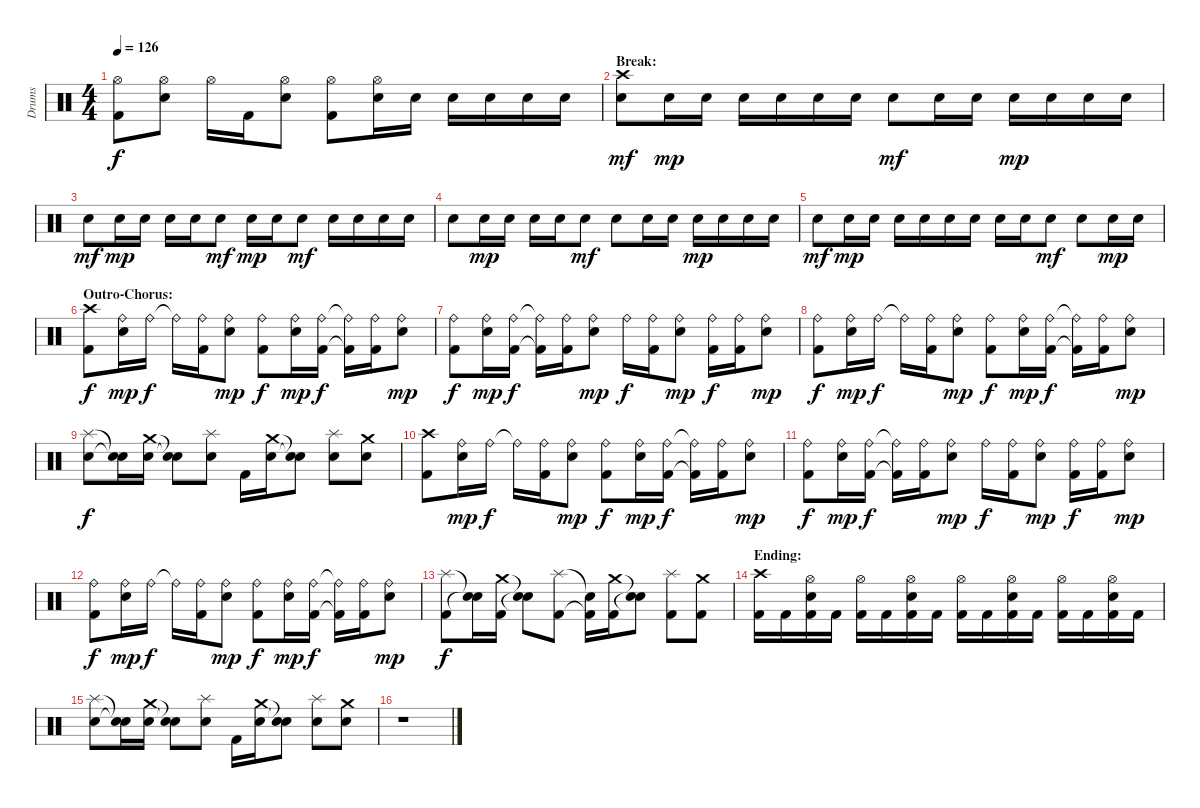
\track ("Drums" "Drums") {instrument percussion}
\staff {score}
\articulation defaults
\ts (4 4)
\tempo 126
\clef neutral
\ks c
("Hi-Hat (open)" "Kick (hit) 2").8{dy f} ("Hi-Hat (open)" "Snare (hit) 2").8 "Hi-Hat (open)".16 "Kick (hit) 2".16 ("Hi-Hat (open)" "Snare (hit) 2").8 ("Hi-Hat (open)" "Kick (hit) 2").8 ("Hi-Hat (open)" "Snare (hit) 2").16 "Snare (hit) 2".16 "Snare (hit) 2".16 "Snare (hit) 2".16 "Snare (hit) 2".16 "Snare (hit) 2".16 |
\section ("" "Break:")
("Crash high (hit)" "Snare (hit) 2").8{dy mf} "Snare (hit) 2".16{dy mp} "Snare (hit) 2".16 "Snare (hit) 2".16 "Snare (hit) 2".16 "Snare (hit) 2".16 "Snare (hit) 2".16 "Snare (hit) 2".8{dy mf} "Snare (hit) 2".16 "Snare (hit) 2".16 "Snare (hit) 2".16{dy mp} "Snare (hit) 2".16 "Snare (hit) 2".16 "Snare (hit) 2".16 |
"Snare (hit) 2".8{dy mf} "Snare (hit) 2".16{dy mp} "Snare (hit) 2".16 "Snare (hit) 2".16 "Snare (hit) 2".16 "Snare (hit) 2".8{dy mf} "Snare (hit) 2".16{dy mp} "Snare (hit) 2".16 "Snare (hit) 2".8{dy mf} "Snare (hit) 2".16 "Snare (hit) 2".16 "Snare (hit) 2".16 "Snare (hit) 2".16 |
"Snare (hit) 2".8 "Snare (hit) 2".16{dy mp} "Snare (hit) 2".16 "Snare (hit) 2".16 "Snare (hit) 2".16 "Snare (hit) 2".8{dy mf} "Snare (hit) 2".8 "Snare (hit) 2".16 "Snare (hit) 2".16 "Snare (hit) 2".16{dy mp} "Snare (hit) 2".16 "Snare (hit) 2".16 "Snare (hit) 2".16 |
"Snare (hit) 2".8{dy mf} "Snare (hit) 2".16{dy mp} "Snare (hit) 2".16 "Snare (hit) 2".16 "Snare (hit) 2".16 "Snare (hit) 2".16 "Snare (hit) 2".16 "Snare (hit) 2".16 "Snare (hit) 2".16 "Snare (hit) 2".8{dy mf} "Snare (hit) 2".8 "Snare (hit) 2".16{dy mp} "Snare (hit) 2".16 |
\section ("" "Outro-Chorus:")
("Crash high (hit)" "Kick (hit) 2").8{dy f} ("Ride (bell)" "Snare (hit) 2").16{dy mp} "Ride (bell)".16{dy f} "Ride (bell)"{t}.16 ("Ride (bell)" "Kick (hit) 2").16 ("Ride (bell)" "Snare (hit) 2").8{dy mp} ("Ride (bell)" "Kick (hit) 2").8{dy f} ("Ride (bell)" "Snare (hit) 2").16{dy mp} ("Ride (bell)" "Kick (hit) 2").16{dy f} ("Ride (bell)"{t} "Kick (hit) 2"{t}).16 ("Ride (bell)" "Kick (hit) 2").16 ("Ride (bell)" "Snare (hit) 2").8{dy mp} |
("Ride (bell)" "Kick (hit) 2").8{dy f} ("Ride (bell)" "Snare (hit) 2").16{dy mp} ("Ride (bell)" "Kick (hit) 2").16{dy f} ("Ride (bell)"{t} "Kick (hit) 2"{t}).16 ("Ride (bell)" "Kick (hit) 2").16 ("Ride (bell)" "Snare (hit) 2").8{dy mp} "Ride (bell)".16{dy f} ("Ride (bell)" "Kick (hit) 2").16 ("Ride (bell)" "Snare (hit) 2").8{dy mp} ("Ride (bell)" "Kick (hit) 2").16{dy f} ("Ride (bell)" "Kick (hit) 2").16 ("Ride (bell)" "Snare (hit) 2").8{dy mp} |
("Ride (bell)" "Kick (hit) 2").8{dy f} ("Ride (bell)" "Snare (hit) 2").16{dy mp} "Ride (bell)".16{dy f} "Ride (bell)"{t}.16 ("Ride (bell)" "Kick (hit) 2").16 ("Ride (bell)" "Snare (hit) 2").8{dy mp} ("Ride (bell)" "Kick (hit) 2").8{dy f} ("Ride (bell)" "Snare (hit) 2").16{dy mp} ("Ride (bell)" "Kick (hit) 2").16{dy f} ("Ride (bell)"{t} "Kick (hit) 2"{t}).16 ("Ride (bell)" "Kick (hit) 2").16 ("Ride (bell)" "Snare (hit) 2").8{dy mp} |
("Splash (hit)" "Snare (hit) 2").8{dy f} ("Snare (hit)"{t} "Snare (hit)"{t}).16 ("Crash medium (hit)" "Snare (hit) 2").16 ("Snare (hit)"{t} "Snare (hit)"{t}).8 ("Splash (hit)" "Snare (hit) 2").8 "Kick (hit) 2".16 ("Crash medium (hit)" "Snare (hit) 2").16 ("Snare (hit)"{t} "Snare (hit)"{t}).8 ("Splash (hit)" "Snare (hit) 2").8 ("Crash medium (hit)" "Snare (hit) 2").8 |
("Crash high (hit)" "Kick (hit) 2").8 ("Ride (bell)" "Snare (hit) 2").16{dy mp} "Ride (bell)".16{dy f} "Ride (bell)"{t}.16 ("Ride (bell)" "Kick (hit) 2").16 ("Ride (bell)" "Snare (hit) 2").8{dy mp} ("Ride (bell)" "Kick (hit) 2").8{dy f} ("Ride (bell)" "Snare (hit) 2").16{dy mp} ("Ride (bell)" "Kick (hit) 2").16{dy f} ("Ride (bell)"{t} "Kick (hit) 2"{t}).16 ("Ride (bell)" "Kick (hit) 2").16 ("Ride (bell)" "Snare (hit) 2").8{dy mp} |
("Ride (bell)" "Kick (hit) 2").8{dy f} ("Ride (bell)" "Snare (hit) 2").16{dy mp} ("Ride (bell)" "Kick (hit) 2").16{dy f} ("Ride (bell)"{t} "Kick (hit) 2"{t}).16 ("Ride (bell)" "Kick (hit) 2").16 ("Ride (bell)" "Snare (hit) 2").8{dy mp} "Ride (bell)".16{dy f} ("Ride (bell)" "Kick (hit) 2").16 ("Ride (bell)" "Snare (hit) 2").8{dy mp} ("Ride (bell)" "Kick (hit) 2").16{dy f} ("Ride (bell)" "Kick (hit) 2").16 ("Ride (bell)" "Snare (hit) 2").8{dy mp} |
("Ride (bell)" "Kick (hit) 2").8{dy f} ("Ride (bell)" "Snare (hit) 2").16{dy mp} "Ride (bell)".16{dy f} "Ride (bell)"{t}.16 ("Ride (bell)" "Kick (hit) 2").16 ("Ride (bell)" "Snare (hit) 2").8{dy mp} ("Ride (bell)" "Kick (hit) 2").8{dy f} ("Ride (bell)" "Snare (hit) 2").16{dy mp} ("Ride (bell)" "Kick (hit) 2").16{dy f} ("Ride (bell)"{t} "Kick (hit) 2"{t}).16 ("Ride (bell)" "Kick (hit) 2").16 ("Ride (bell)" "Snare (hit) 2").8{dy mp} |
("Splash (hit)" "Kick (hit) 2").8{dy f} ("Snare (hit)"{t} "Snare (hit)"{t}).16 ("Crash medium (hit)" "Kick (hit) 2").16 ("Snare (hit)"{t} "Snare (hit)"{t}).8 ("Splash (hit)" "Kick (hit) 2").8 ("Snare (hit)"{t} "Kick (hit) 2"{t}).16 ("Crash medium (hit)" "Kick (hit) 2").16 ("Snare (hit)"{t} "Snare (hit)"{t}).8 ("Splash (hit)" "Kick (hit) 2").8 ("Crash medium (hit)" "Kick (hit) 2").8 |
\section ("" "Ending:")
("Crash high (hit)" "Kick (hit) 2").16 "Kick (hit) 2".16 ("Hi-Hat (open)" "Snare (hit) 2" "Kick (hit) 2").16 "Kick (hit) 2".16 ("Hi-Hat (open)" "Kick (hit) 2").16 "Kick (hit) 2".16 ("Hi-Hat (open)" "Snare (hit) 2" "Kick (hit) 2").16 "Kick (hit) 2".16 ("Hi-Hat (open)" "Kick (hit) 2").16 "Kick (hit) 2".16 ("Hi-Hat (open)" "Snare (hit) 2" "Kick (hit) 2").16 "Kick (hit) 2".16 ("Hi-Hat (open)" "Kick (hit) 2").16 "Kick (hit) 2".16 ("Hi-Hat (open)" "Snare (hit) 2" "Kick (hit) 2").16 "Kick (hit) 2".16 |
("Splash (hit)" "Snare (hit) 2").8 ("Snare (hit)"{t} "Snare (hit)"{t}).16 ("Crash medium (hit)" "Snare (hit) 2").16 ("Snare (hit)"{t} "Snare (hit)"{t}).8 ("Splash (hit)" "Snare (hit) 2").8 "Kick (hit) 2".16 ("Crash medium (hit)" "Snare (hit) 2").16 ("Snare (hit)"{t} "Snare (hit)"{t}).8 ("Splash (hit)" "Snare (hit) 2").8 ("Crash medium (hit)" "Snare (hit) 2").8 |
r.1
